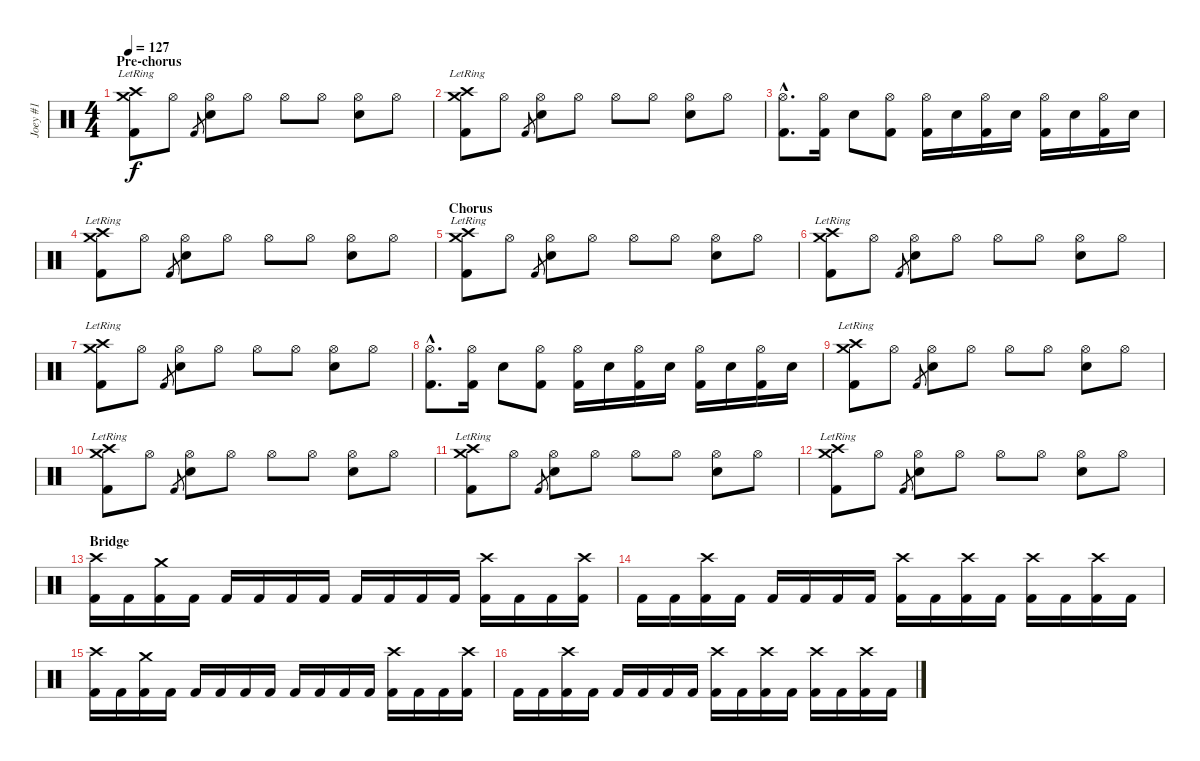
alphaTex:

\track ("Joey #1" "Joey #1") {instrument percussion}
\staff {score}
\articulation defaults
\ts (4 4)
\section ("" "Pre-chorus")
\tempo 127
\clef neutral
\ks c
("Crash medium (hit)"{lr} "Crash high (hit)"{lr} "Kick (hit) 2").8{dy f} "Hi-Hat (open)".8 "Kick (hit) 2"{sl}.8{gr} ("Hi-Hat (open)" "Electric Snare (hit)").8 "Hi-Hat (open)".8 "Hi-Hat (open)".8 "Hi-Hat (open)".8 ("Hi-Hat (open)" "Electric Snare (hit)").8 "Hi-Hat (open)".8 |
("Crash medium (hit)"{lr} "Crash high (hit)"{lr} "Kick (hit) 2").8 "Hi-Hat (open)".8 "Kick (hit) 2"{sl}.8{gr} ("Hi-Hat (open)" "Electric Snare (hit)").8 "Hi-Hat (open)".8 "Hi-Hat (open)".8 "Hi-Hat (open)".8 ("Hi-Hat (open)" "Electric Snare (hit)").8 "Hi-Hat (open)".8 |
("Hi-Hat (open)"{hac} "Kick (hit) 2"{hac}).8{d} ("Hi-Hat (open)" "Kick (hit) 2").16 "Electric Snare (hit)".8 ("Hi-Hat (open)" "Kick (hit) 2").8 ("Kick (hit) 2" "Hi-Hat (open)").16 "Electric Snare (hit)".16 ("Kick (hit) 2" "Hi-Hat (open)").16 "Electric Snare (hit)".16 ("Kick (hit) 2" "Hi-Hat (open)").16 "Electric Snare (hit)".16 ("Kick (hit) 2" "Hi-Hat (open)").16 "Electric Snare (hit)".16 |
("Crash medium (hit)"{lr} "Crash high (hit)"{lr} "Kick (hit) 2").8 "Hi-Hat (open)".8 "Kick (hit) 2"{sl}.8{gr} ("Hi-Hat (open)" "Electric Snare (hit)").8 "Hi-Hat (open)".8 "Hi-Hat (open)".8 "Hi-Hat (open)".8 ("Hi-Hat (open)" "Electric Snare (hit)").8 "Hi-Hat (open)".8 |
\section ("" "Chorus")
("Crash medium (hit)"{lr} "Crash high (hit)"{lr} "Kick (hit) 2").8 "Hi-Hat (open)".8 "Kick (hit) 2"{sl}.8{gr} ("Hi-Hat (open)" "Electric Snare (hit)").8 "Hi-Hat (open)".8 "Hi-Hat (open)".8 "Hi-Hat (open)".8 ("Hi-Hat (open)" "Electric Snare (hit)").8 "Hi-Hat (open)".8 |
("Crash medium (hit)"{lr} "Crash high (hit)"{lr} "Kick (hit) 2").8 "Hi-Hat (open)".8 "Kick (hit) 2"{sl}.8{gr} ("Hi-Hat (open)" "Electric Snare (hit)").8 "Hi-Hat (open)".8 "Hi-Hat (open)".8 "Hi-Hat (open)".8 ("Hi-Hat (open)" "Electric Snare (hit)").8 "Hi-Hat (open)".8 |
("Crash medium (hit)"{lr} "Crash high (hit)"{lr} "Kick (hit) 2").8 "Hi-Hat (open)".8 "Kick (hit) 2"{sl}.8{gr} ("Hi-Hat (open)" "Electric Snare (hit)").8 "Hi-Hat (open)".8 "Hi-Hat (open)".8 "Hi-Hat (open)".8 ("Hi-Hat (open)" "Electric Snare (hit)").8 "Hi-Hat (open)".8 |
("Hi-Hat (open)"{hac} "Kick (hit) 2"{hac}).8{d} ("Hi-Hat (open)" "Kick (hit) 2").16 "Electric Snare (hit)".8 ("Hi-Hat (open)" "Kick (hit) 2").8 ("Kick (hit) 2" "Hi-Hat (open)").16 "Electric Snare (hit)".16 ("Kick (hit) 2" "Hi-Hat (open)").16 "Electric Snare (hit)".16 ("Kick (hit) 2" "Hi-Hat (open)").16 "Electric Snare (hit)".16 ("Kick (hit) 2" "Hi-Hat (open)").16 "Electric Snare (hit)".16 |
("Crash medium (hit)"{lr} "Crash high (hit)"{lr} "Kick (hit) 2").8 "Hi-Hat (open)".8 "Kick (hit) 2"{sl}.8{gr} ("Hi-Hat (open)" "Electric Snare (hit)").8 "Hi-Hat (open)".8 "Hi-Hat (open)".8 "Hi-Hat (open)".8 ("Hi-Hat (open)" "Electric Snare (hit)").8 "Hi-Hat (open)".8 |
("Crash medium (hit)"{lr} "Crash high (hit)"{lr} "Kick (hit) 2").8 "Hi-Hat (open)".8 "Kick (hit) 2"{sl}.8{gr} ("Hi-Hat (open)" "Electric Snare (hit)").8 "Hi-Hat (open)".8 "Hi-Hat (open)".8 "Hi-Hat (open)".8 ("Hi-Hat (open)" "Electric Snare (hit)").8 "Hi-Hat (open)".8 |
("Crash medium (hit)"{lr} "Crash high (hit)"{lr} "Kick (hit) 2").8 "Hi-Hat (open)".8 "Kick (hit) 2"{sl}.8{gr} ("Hi-Hat (open)" "Electric Snare (hit)").8 "Hi-Hat (open)".8 "Hi-Hat (open)".8 "Hi-Hat (open)".8 ("Hi-Hat (open)" "Electric Snare (hit)").8 "Hi-Hat (open)".8 |
("Crash medium (hit)"{lr} "Crash high (hit)"{lr} "Kick (hit) 2").8 "Hi-Hat (open)".8 "Kick (hit) 2"{sl}.8{gr} ("Hi-Hat (open)" "Electric Snare (hit)").8 "Hi-Hat (open)".8 "Hi-Hat (open)".8 "Hi-Hat (open)".8 ("Hi-Hat (open)" "Electric Snare (hit)").8 "Hi-Hat (open)".8 |
\section ("" "Bridge")
("Crash high (hit)" "Kick (hit) 2").16 "Kick (hit) 2".16 ("Crash medium (hit)" "Kick (hit) 2").16 "Kick (hit) 2".16 "Kick (hit) 2".16 "Kick (hit) 2".16 "Kick (hit) 2".16 "Kick (hit) 2".16 "Kick (hit) 2".16 "Kick (hit) 2".16 "Kick (hit) 2".16 "Kick (hit) 2".16 ("Crash high (hit)" "Kick (hit) 2").16 "Kick (hit) 2".16 "Kick (hit) 2".16 ("Crash high (hit)" "Kick (hit) 2").16 |
"Kick (hit) 2".16 "Kick (hit) 2".16 ("Crash high (hit)" "Kick (hit) 2").16 "Kick (hit) 2".16 "Kick (hit) 2".16 "Kick (hit) 2".16 "Kick (hit) 2".16 "Kick (hit) 2".16 ("Crash high (hit)" "Kick (hit) 2").16 "Kick (hit) 2".16 ("Crash high (hit)" "Kick (hit) 2").16 "Kick (hit) 2".16 ("Crash high (hit)" "Kick (hit) 2").16 "Kick (hit) 2".16 ("Crash high (hit)" "Kick (hit) 2").16 "Kick (hit) 2".16 |
("Crash high (hit)" "Kick (hit) 2").16 "Kick (hit) 2".16 ("Crash medium (hit)" "Kick (hit) 2").16 "Kick (hit) 2".16 "Kick (hit) 2".16 "Kick (hit) 2".16 "Kick (hit) 2".16 "Kick (hit) 2".16 "Kick (hit) 2".16 "Kick (hit) 2".16 "Kick (hit) 2".16 "Kick (hit) 2".16 ("Crash high (hit)" "Kick (hit) 2").16 "Kick (hit) 2".16 "Kick (hit) 2".16 ("Crash high (hit)" "Kick (hit) 2").16 |
"Kick (hit) 2".16 "Kick (hit) 2".16 ("Crash high (hit)" "Kick (hit) 2").16 "Kick (hit) 2".16 "Kick (hit) 2".16 "Kick (hit) 2".16 "Kick (hit) 2".16 "Kick (hit) 2".16 ("Crash high (hit)" "Kick (hit) 2").16 "Kick (hit) 2".16 ("Crash high (hit)" "Kick (hit) 2").16 "Kick (hit) 2".16 ("Crash high (hit)" "Kick (hit) 2").16 "Kick (hit) 2".16 ("Crash high (hit)" "Kick (hit) 2").16 "Kick (hit) 2".16
